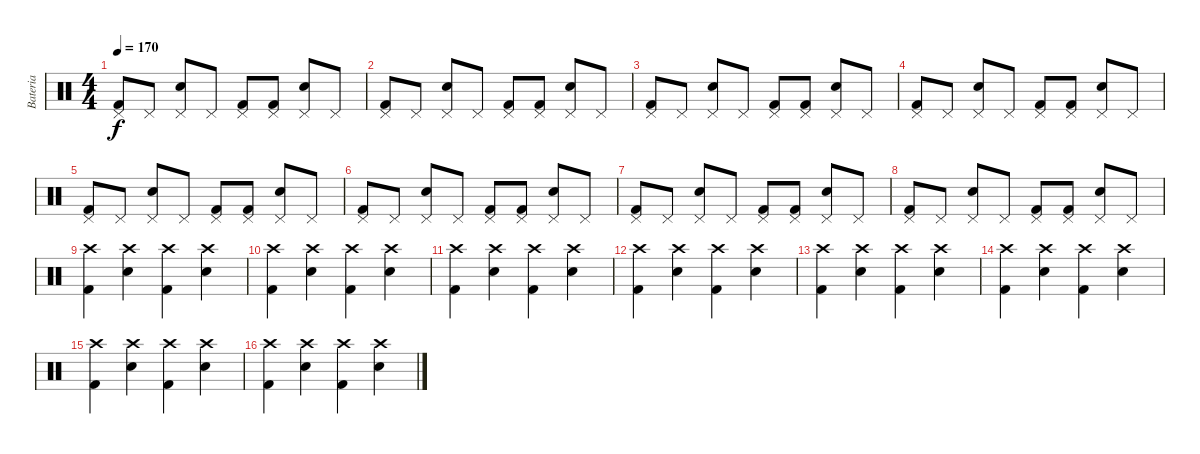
\track ("Bateria" "Bateria") {instrument percussion}
\staff {score}
\articulation defaults
\ts (4 4)
\tempo 170
\clef neutral
\ks c
("Pedal Hi-Hat (hit)" "Kick (hit) 2").8{dy f} "Pedal Hi-Hat (hit)".8 ("Pedal Hi-Hat (hit)" "Snare (hit) 2").8 "Pedal Hi-Hat (hit)".8 ("Pedal Hi-Hat (hit)" "Kick (hit) 2").8 ("Pedal Hi-Hat (hit)" "Kick (hit) 2").8 ("Pedal Hi-Hat (hit)" "Snare (hit) 2").8 "Pedal Hi-Hat (hit)".8 |
("Pedal Hi-Hat (hit)" "Kick (hit) 2").8 "Pedal Hi-Hat (hit)".8 ("Pedal Hi-Hat (hit)" "Snare (hit) 2").8 "Pedal Hi-Hat (hit)".8 ("Pedal Hi-Hat (hit)" "Kick (hit) 2").8 ("Pedal Hi-Hat (hit)" "Kick (hit) 2").8 ("Pedal Hi-Hat (hit)" "Snare (hit) 2").8 "Pedal Hi-Hat (hit)".8 |
("Pedal Hi-Hat (hit)" "Kick (hit) 2").8 "Pedal Hi-Hat (hit)".8 ("Pedal Hi-Hat (hit)" "Snare (hit) 2").8 "Pedal Hi-Hat (hit)".8 ("Pedal Hi-Hat (hit)" "Kick (hit) 2").8 ("Pedal Hi-Hat (hit)" "Kick (hit) 2").8 ("Pedal Hi-Hat (hit)" "Snare (hit) 2").8 "Pedal Hi-Hat (hit)".8 |
("Pedal Hi-Hat (hit)" "Kick (hit) 2").8 "Pedal Hi-Hat (hit)".8 ("Pedal Hi-Hat (hit)" "Snare (hit) 2").8 "Pedal Hi-Hat (hit)".8 ("Pedal Hi-Hat (hit)" "Kick (hit) 2").8 ("Pedal Hi-Hat (hit)" "Kick (hit) 2").8 ("Pedal Hi-Hat (hit)" "Snare (hit) 2").8 "Pedal Hi-Hat (hit)".8 |
("Pedal Hi-Hat (hit)" "Kick (hit) 2").8 "Pedal Hi-Hat (hit)".8 ("Pedal Hi-Hat (hit)" "Snare (hit) 2").8 "Pedal Hi-Hat (hit)".8 ("Pedal Hi-Hat (hit)" "Kick (hit) 2").8 ("Pedal Hi-Hat (hit)" "Kick (hit) 2").8 ("Pedal Hi-Hat (hit)" "Snare (hit) 2").8 "Pedal Hi-Hat (hit)".8 |
("Pedal Hi-Hat (hit)" "Kick (hit) 2").8 "Pedal Hi-Hat (hit)".8 ("Pedal Hi-Hat (hit)" "Snare (hit) 2").8 "Pedal Hi-Hat (hit)".8 ("Pedal Hi-Hat (hit)" "Kick (hit) 2").8 ("Pedal Hi-Hat (hit)" "Kick (hit) 2").8 ("Pedal Hi-Hat (hit)" "Snare (hit) 2").8 "Pedal Hi-Hat (hit)".8 |
("Pedal Hi-Hat (hit)" "Kick (hit) 2").8 "Pedal Hi-Hat (hit)".8 ("Pedal Hi-Hat (hit)" "Snare (hit) 2").8 "Pedal Hi-Hat (hit)".8 ("Pedal Hi-Hat (hit)" "Kick (hit) 2").8 ("Pedal Hi-Hat (hit)" "Kick (hit) 2").8 ("Pedal Hi-Hat (hit)" "Snare (hit) 2").8 "Pedal Hi-Hat (hit)".8 |
("Pedal Hi-Hat (hit)" "Kick (hit) 2").8 "Pedal Hi-Hat (hit)".8 ("Pedal Hi-Hat (hit)" "Snare (hit) 2").8 "Pedal Hi-Hat (hit)".8 ("Pedal Hi-Hat (hit)" "Kick (hit) 2").8 ("Pedal Hi-Hat (hit)" "Kick (hit) 2").8 ("Pedal Hi-Hat (hit)" "Snare (hit) 2").8 "Pedal Hi-Hat (hit)".8 |
("Crash high (hit)" "Kick (hit) 2").4 ("Crash high (hit)" "Snare (hit) 2").4 ("Crash high (hit)" "Kick (hit) 2").4 ("Crash high (hit)" "Snare (hit) 2").4 |
("Crash high (hit)" "Kick (hit) 2").4 ("Crash high (hit)" "Snare (hit) 2").4 ("Crash high (hit)" "Kick (hit) 2").4 ("Crash high (hit)" "Snare (hit) 2").4 |
("Crash high (hit)" "Kick (hit) 2").4 ("Crash high (hit)" "Snare (hit) 2").4 ("Crash high (hit)" "Kick (hit) 2").4 ("Crash high (hit)" "Snare (hit) 2").4 |
("Crash high (hit)" "Kick (hit) 2").4 ("Crash high (hit)" "Snare (hit) 2").4 ("Crash high (hit)" "Kick (hit) 2").4 ("Crash high (hit)" "Snare (hit) 2").4 |
("Crash high (hit)" "Kick (hit) 2").4 ("Crash high (hit)" "Snare (hit) 2").4 ("Crash high (hit)" "Kick (hit) 2").4 ("Crash high (hit)" "Snare (hit) 2").4 |
("Crash high (hit)" "Kick (hit) 2").4 ("Crash high (hit)" "Snare (hit) 2").4 ("Crash high (hit)" "Kick (hit) 2").4 ("Crash high (hit)" "Snare (hit) 2").4 |
("Crash high (hit)" "Kick (hit) 2").4 ("Crash high (hit)" "Snare (hit) 2").4 ("Crash high (hit)" "Kick (hit) 2").4 ("Crash high (hit)" "Snare (hit) 2").4 |
("Crash high (hit)" "Kick (hit) 2").4 ("Crash high (hit)" "Snare (hit) 2").4 ("Crash high (hit)" "Kick (hit) 2").4 ("Crash high (hit)" "Snare (hit) 2").4
